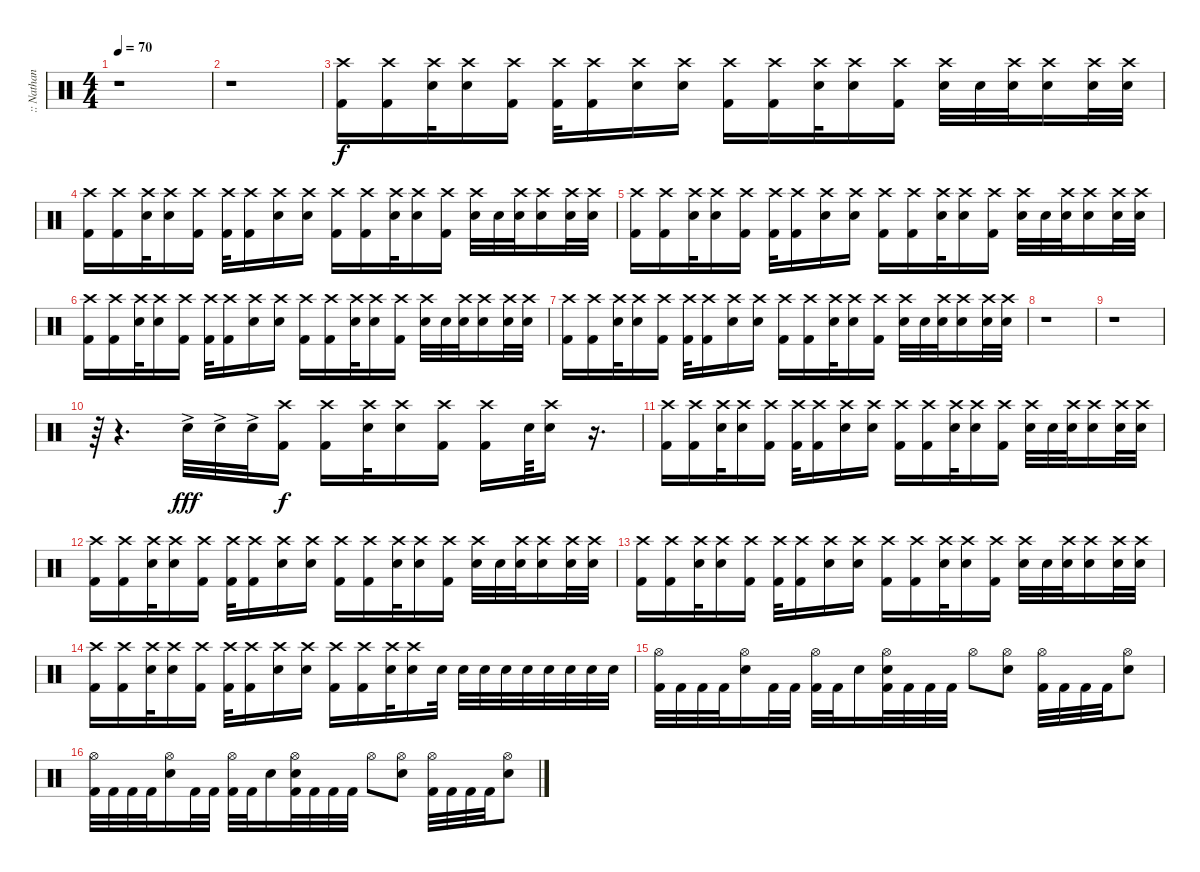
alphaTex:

\track (":: Nathan Jonas Jordison #1 ::" ":: Nathan ") {instrument percussion}
\staff {score}
\articulation defaults
\ts (4 4)
\tempo 70
\clef neutral
\ks c
r.1{dy f} |
r.1{volume 0} |
("Crash high (hit)" "Kick (hit) 2").16{volume 10} ("Crash high (hit)" "Kick (hit) 2").16 ("Crash high (hit)" "Electric Snare (hit)").32 ("Crash high (hit)" "Snare (hit) 2").16 ("Crash high (hit)" "Kick (hit) 2").16 ("Crash high (hit)" "Kick (hit) 2").32 ("Crash high (hit)" "Kick (hit) 2").16 ("Crash high (hit)" "Electric Snare (hit)").16 ("Crash high (hit)" "Snare (hit) 2").16 ("Crash high (hit)" "Kick (hit) 2").16 ("Crash high (hit)" "Kick (hit) 2").16 ("Crash high (hit)" "Electric Snare (hit)").32 ("Crash high (hit)" "Snare (hit) 2").16 ("Crash high (hit)" "Kick (hit) 2").16 ("Crash high (hit)" "Electric Snare (hit)").32 "Snare (hit) 2".32 ("Crash high (hit)" "Snare (hit) 2").32 ("Crash high (hit)" "Electric Snare (hit)").16 ("Crash high (hit)" "Electric Snare (hit)").32 ("Crash high (hit)" "Electric Snare (hit)").32 |
("Crash high (hit)" "Kick (hit) 2").16 ("Crash high (hit)" "Kick (hit) 2").16 ("Crash high (hit)" "Electric Snare (hit)").32 ("Crash high (hit)" "Snare (hit) 2").16 ("Crash high (hit)" "Kick (hit) 2").16 ("Crash high (hit)" "Kick (hit) 2").32 ("Crash high (hit)" "Kick (hit) 2").16 ("Crash high (hit)" "Electric Snare (hit)").16 ("Crash high (hit)" "Snare (hit) 2").16 ("Crash high (hit)" "Kick (hit) 2").16 ("Crash high (hit)" "Kick (hit) 2").16 ("Crash high (hit)" "Electric Snare (hit)").32 ("Crash high (hit)" "Snare (hit) 2").16 ("Crash high (hit)" "Kick (hit) 2").16 ("Crash high (hit)" "Electric Snare (hit)").32 "Snare (hit) 2".32 ("Crash high (hit)" "Snare (hit) 2").32 ("Crash high (hit)" "Electric Snare (hit)").16 ("Crash high (hit)" "Electric Snare (hit)").32 ("Crash high (hit)" "Electric Snare (hit)").32 |
("Crash high (hit)" "Kick (hit) 2").16 ("Crash high (hit)" "Kick (hit) 2").16 ("Crash high (hit)" "Electric Snare (hit)").32 ("Crash high (hit)" "Snare (hit) 2").16 ("Crash high (hit)" "Kick (hit) 2").16 ("Crash high (hit)" "Kick (hit) 2").32 ("Crash high (hit)" "Kick (hit) 2").16 ("Crash high (hit)" "Electric Snare (hit)").16 ("Crash high (hit)" "Snare (hit) 2").16 ("Crash high (hit)" "Kick (hit) 2").16 ("Crash high (hit)" "Kick (hit) 2").16 ("Crash high (hit)" "Electric Snare (hit)").32 ("Crash high (hit)" "Snare (hit) 2").16 ("Crash high (hit)" "Kick (hit) 2").16 ("Crash high (hit)" "Electric Snare (hit)").32 "Snare (hit) 2".32 ("Crash high (hit)" "Snare (hit) 2").32 ("Crash high (hit)" "Electric Snare (hit)").16 ("Crash high (hit)" "Electric Snare (hit)").32 ("Crash high (hit)" "Electric Snare (hit)").32 |
("Crash high (hit)" "Kick (hit) 2").16 ("Crash high (hit)" "Kick (hit) 2").16 ("Crash high (hit)" "Electric Snare (hit)").32 ("Crash high (hit)" "Snare (hit) 2").16 ("Crash high (hit)" "Kick (hit) 2").16 ("Crash high (hit)" "Kick (hit) 2").32 ("Crash high (hit)" "Kick (hit) 2").16 ("Crash high (hit)" "Electric Snare (hit)").16 ("Crash high (hit)" "Snare (hit) 2").16 ("Crash high (hit)" "Kick (hit) 2").16 ("Crash high (hit)" "Kick (hit) 2").16 ("Crash high (hit)" "Electric Snare (hit)").32 ("Crash high (hit)" "Snare (hit) 2").16 ("Crash high (hit)" "Kick (hit) 2").16 ("Crash high (hit)" "Electric Snare (hit)").32 "Snare (hit) 2".32 ("Crash high (hit)" "Snare (hit) 2").32 ("Crash high (hit)" "Electric Snare (hit)").16 ("Crash high (hit)" "Electric Snare (hit)").32 ("Crash high (hit)" "Electric Snare (hit)").32 |
("Crash high (hit)" "Kick (hit) 2").16 ("Crash high (hit)" "Kick (hit) 2").16 ("Crash high (hit)" "Electric Snare (hit)").32 ("Crash high (hit)" "Snare (hit) 2").16 ("Crash high (hit)" "Kick (hit) 2").16 ("Crash high (hit)" "Kick (hit) 2").32 ("Crash high (hit)" "Kick (hit) 2").16 ("Crash high (hit)" "Electric Snare (hit)").16 ("Crash high (hit)" "Snare (hit) 2").16 ("Crash high (hit)" "Kick (hit) 2").16 ("Crash high (hit)" "Kick (hit) 2").16 ("Crash high (hit)" "Electric Snare (hit)").32 ("Crash high (hit)" "Snare (hit) 2").16 ("Crash high (hit)" "Kick (hit) 2").16 ("Crash high (hit)" "Electric Snare (hit)").32 "Snare (hit) 2".32 ("Crash high (hit)" "Snare (hit) 2").32 ("Crash high (hit)" "Electric Snare (hit)").16 ("Crash high (hit)" "Electric Snare (hit)").32 ("Crash high (hit)" "Electric Snare (hit)").32 |
r.1 |
r.1 |
r.64 r.4{d volume 16} "Electric Snare (hit)"{ac}.32{dy fff} "Electric Snare (hit)"{ac}.32 "Electric Snare (hit)"{ac}.32 ("Crash high (hit)" "Kick (hit) 2").16{dy f} ("Crash high (hit)" "Kick (hit) 2").16 ("Crash high (hit)" "Electric Snare (hit)").32 ("Crash high (hit)" "Snare (hit) 2").16 ("Crash high (hit)" "Kick (hit) 2").16 ("Crash high (hit)" "Kick (hit) 2").16 "Electric Snare (hit)".64 ("Crash high (hit)" "Electric Snare (hit)").16 r.16{d} |
("Crash high (hit)" "Kick (hit) 2").16 ("Crash high (hit)" "Kick (hit) 2").16 ("Crash high (hit)" "Electric Snare (hit)").32 ("Crash high (hit)" "Snare (hit) 2").16 ("Crash high (hit)" "Kick (hit) 2").16 ("Crash high (hit)" "Kick (hit) 2").32 ("Crash high (hit)" "Kick (hit) 2").16 ("Crash high (hit)" "Electric Snare (hit)").16 ("Crash high (hit)" "Snare (hit) 2").16 ("Crash high (hit)" "Kick (hit) 2").16 ("Crash high (hit)" "Kick (hit) 2").16 ("Crash high (hit)" "Electric Snare (hit)").32 ("Crash high (hit)" "Snare (hit) 2").16 ("Crash high (hit)" "Kick (hit) 2").16 ("Crash high (hit)" "Electric Snare (hit)").32 "Snare (hit) 2".32 ("Crash high (hit)" "Snare (hit) 2").32 ("Crash high (hit)" "Electric Snare (hit)").16 ("Crash high (hit)" "Electric Snare (hit)").32 ("Crash high (hit)" "Electric Snare (hit)").32 |
("Crash high (hit)" "Kick (hit) 2").16 ("Crash high (hit)" "Kick (hit) 2").16 ("Crash high (hit)" "Electric Snare (hit)").32 ("Crash high (hit)" "Snare (hit) 2").16 ("Crash high (hit)" "Kick (hit) 2").16 ("Crash high (hit)" "Kick (hit) 2").32 ("Crash high (hit)" "Kick (hit) 2").16 ("Crash high (hit)" "Electric Snare (hit)").16 ("Crash high (hit)" "Snare (hit) 2").16 ("Crash high (hit)" "Kick (hit) 2").16 ("Crash high (hit)" "Kick (hit) 2").16 ("Crash high (hit)" "Electric Snare (hit)").32 ("Crash high (hit)" "Snare (hit) 2").16 ("Crash high (hit)" "Kick (hit) 2").16 ("Crash high (hit)" "Electric Snare (hit)").32 "Snare (hit) 2".32 ("Crash high (hit)" "Snare (hit) 2").32 ("Crash high (hit)" "Electric Snare (hit)").16 ("Crash high (hit)" "Electric Snare (hit)").32 ("Crash high (hit)" "Electric Snare (hit)").32 |
("Crash high (hit)" "Kick (hit) 2").16 ("Crash high (hit)" "Kick (hit) 2").16 ("Crash high (hit)" "Electric Snare (hit)").32 ("Crash high (hit)" "Snare (hit) 2").16 ("Crash high (hit)" "Kick (hit) 2").16 ("Crash high (hit)" "Kick (hit) 2").32 ("Crash high (hit)" "Kick (hit) 2").16 ("Crash high (hit)" "Electric Snare (hit)").16 ("Crash high (hit)" "Snare (hit) 2").16 ("Crash high (hit)" "Kick (hit) 2").16 ("Crash high (hit)" "Kick (hit) 2").16 ("Crash high (hit)" "Electric Snare (hit)").32 ("Crash high (hit)" "Snare (hit) 2").16 ("Crash high (hit)" "Kick (hit) 2").16 ("Crash high (hit)" "Electric Snare (hit)").32 "Snare (hit) 2".32 ("Crash high (hit)" "Snare (hit) 2").32 ("Crash high (hit)" "Electric Snare (hit)").16 ("Crash high (hit)" "Electric Snare (hit)").32 ("Crash high (hit)" "Electric Snare (hit)").32 |
("Crash high (hit)" "Kick (hit) 2").16 ("Crash high (hit)" "Kick (hit) 2").16 ("Crash high (hit)" "Electric Snare (hit)").32 ("Crash high (hit)" "Snare (hit) 2").16 ("Crash high (hit)" "Kick (hit) 2").16 ("Crash high (hit)" "Kick (hit) 2").32 ("Crash high (hit)" "Kick (hit) 2").16 ("Crash high (hit)" "Electric Snare (hit)").16 ("Crash high (hit)" "Snare (hit) 2").16 ("Crash high (hit)" "Kick (hit) 2").16 ("Crash high (hit)" "Kick (hit) 2").16 ("Crash high (hit)" "Electric Snare (hit)").32 ("Crash high (hit)" "Snare (hit) 2").16 "Electric Snare (hit)".32 "Electric Snare (hit)".32 "Electric Snare (hit)".32 "Snare (hit) 2".32 "Snare (hit) 2".32 "Electric Snare (hit)".32 "Electric Snare (hit)".32 "Electric Snare (hit)".32 "Electric Snare (hit)".32 |
("Hi-Hat (open)" "Kick (hit) 2").32 "Kick (hit) 2".32 "Kick (hit) 2".32 "Kick (hit) 2".32 ("Hi-Hat (open)" "Electric Snare (hit)").16 "Kick (hit) 2".32 "Kick (hit) 2".32 ("Hi-Hat (open)" "Kick (hit) 2").32 "Kick (hit) 2".32 "Electric Snare (hit)".16 ("Hi-Hat (open)" "Electric Snare (hit)" "Kick (hit) 2").32 "Kick (hit) 2".32 "Kick (hit) 2".32 "Kick (hit) 2".32 "Hi-Hat (open)".8 ("Hi-Hat (open)" "Electric Snare (hit)").8 ("Hi-Hat (open)" "Kick (hit) 2").32 "Kick (hit) 2".32 "Kick (hit) 2".32 "Kick (hit) 2".32 ("Hi-Hat (open)" "Electric Snare (hit)").8 |
("Hi-Hat (open)" "Kick (hit) 2").32 "Kick (hit) 2".32 "Kick (hit) 2".32 "Kick (hit) 2".32 ("Hi-Hat (open)" "Electric Snare (hit)").16 "Kick (hit) 2".32 "Kick (hit) 2".32 ("Hi-Hat (open)" "Kick (hit) 2").32 "Kick (hit) 2".32 "Electric Snare (hit)".16 ("Hi-Hat (open)" "Electric Snare (hit)" "Kick (hit) 2").32 "Kick (hit) 2".32 "Kick (hit) 2".32 "Kick (hit) 2".32 "Hi-Hat (open)".8 ("Hi-Hat (open)" "Electric Snare (hit)").8 ("Hi-Hat (open)" "Kick (hit) 2").32 "Kick (hit) 2".32 "Kick (hit) 2".32 "Kick (hit) 2".32 ("Hi-Hat (open)" "Electric Snare (hit)").8
